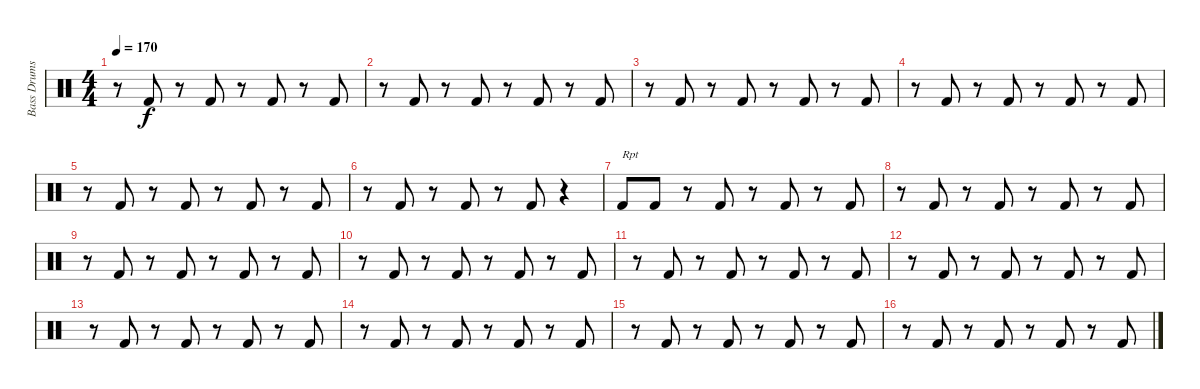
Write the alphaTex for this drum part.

\track ("Bass Drums" "Bass Drums") {instrument percussion}
\staff {score}
\articulation defaults
\ts (4 4)
\tempo 170
\clef neutral
\ks c
r.8{dy f} "Kick (hit) 2".8 r.8 "Kick (hit) 2".8 r.8 "Kick (hit) 2".8 r.8 "Kick (hit) 2".8 |
r.8 "Kick (hit) 2".8 r.8 "Kick (hit) 2".8 r.8 "Kick (hit) 2".8 r.8 "Kick (hit) 2".8 |
r.8 "Kick (hit) 2".8 r.8 "Kick (hit) 2".8 r.8 "Kick (hit) 2".8 r.8 "Kick (hit) 2".8 |
r.8 "Kick (hit) 2".8 r.8 "Kick (hit) 2".8 r.8 "Kick (hit) 2".8 r.8 "Kick (hit) 2".8 |
r.8 "Kick (hit) 2".8 r.8 "Kick (hit) 2".8 r.8 "Kick (hit) 2".8 r.8 "Kick (hit) 2".8 |
r.8 "Kick (hit) 2".8 r.8 "Kick (hit) 2".8 r.8 "Kick (hit) 2".8 r.4 |
"Kick (hit) 2".8{txt "Rpt"} "Kick (hit) 2".8 r.8 "Kick (hit) 2".8 r.8 "Kick (hit) 2".8 r.8 "Kick (hit) 2".8 |
r.8 "Kick (hit) 2".8 r.8 "Kick (hit) 2".8 r.8 "Kick (hit) 2".8 r.8 "Kick (hit) 2".8 |
r.8 "Kick (hit) 2".8 r.8 "Kick (hit) 2".8 r.8 "Kick (hit) 2".8 r.8 "Kick (hit) 2".8 |
r.8 "Kick (hit) 2".8 r.8 "Kick (hit) 2".8 r.8 "Kick (hit) 2".8 r.8 "Kick (hit) 2".8 |
r.8 "Kick (hit) 2".8 r.8 "Kick (hit) 2".8 r.8 "Kick (hit) 2".8 r.8 "Kick (hit) 2".8 |
r.8 "Kick (hit) 2".8 r.8 "Kick (hit) 2".8 r.8 "Kick (hit) 2".8 r.8 "Kick (hit) 2".8 |
r.8 "Kick (hit) 2".8 r.8 "Kick (hit) 2".8 r.8 "Kick (hit) 2".8 r.8 "Kick (hit) 2".8 |
r.8 "Kick (hit) 2".8 r.8 "Kick (hit) 2".8 r.8 "Kick (hit) 2".8 r.8 "Kick (hit) 2".8 |
r.8 "Kick (hit) 2".8 r.8 "Kick (hit) 2".8 r.8 "Kick (hit) 2".8 r.8 "Kick (hit) 2".8 |
r.8 "Kick (hit) 2".8 r.8 "Kick (hit) 2".8 r.8 "Kick (hit) 2".8 r.8 "Kick (hit) 2".8
